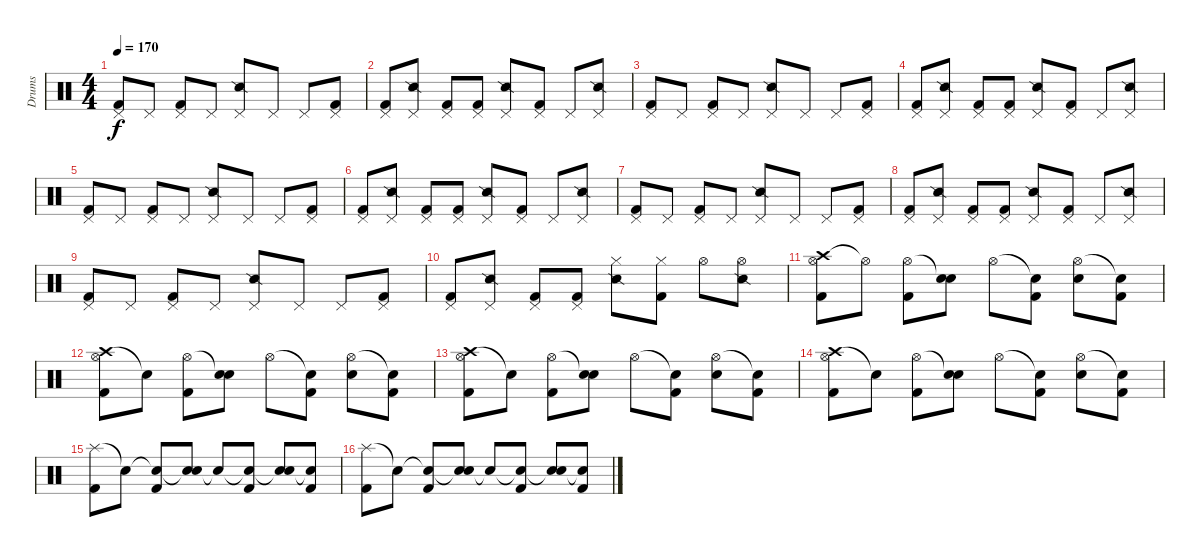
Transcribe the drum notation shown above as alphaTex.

\track ("Drums" "Drums") {instrument percussion}
\staff {score}
\articulation defaults
\ts (4 4)
\tempo 170
\clef neutral
\ks c
("Pedal Hi-Hat (hit)" "Kick (hit) 2").8{dy f} "Pedal Hi-Hat (hit)".8 ("Pedal Hi-Hat (hit)" "Kick (hit) 2").8 "Pedal Hi-Hat (hit)".8 ("Pedal Hi-Hat (hit)" "Snare (side stick) 2").8 "Pedal Hi-Hat (hit)".8 "Pedal Hi-Hat (hit)".8 ("Pedal Hi-Hat (hit)" "Kick (hit) 2").8 |
("Pedal Hi-Hat (hit)" "Kick (hit) 2").8 ("Pedal Hi-Hat (hit)" "Snare (side stick) 2").8 ("Pedal Hi-Hat (hit)" "Kick (hit) 2").8 ("Pedal Hi-Hat (hit)" "Kick (hit) 2").8 ("Pedal Hi-Hat (hit)" "Snare (side stick) 2").8 ("Pedal Hi-Hat (hit)" "Kick (hit) 2").8 "Pedal Hi-Hat (hit)".8 ("Pedal Hi-Hat (hit)" "Snare (side stick) 2").8 |
("Pedal Hi-Hat (hit)" "Kick (hit) 2").8 "Pedal Hi-Hat (hit)".8 ("Pedal Hi-Hat (hit)" "Kick (hit) 2").8 "Pedal Hi-Hat (hit)".8 ("Pedal Hi-Hat (hit)" "Snare (side stick) 2").8 "Pedal Hi-Hat (hit)".8 "Pedal Hi-Hat (hit)".8 ("Pedal Hi-Hat (hit)" "Kick (hit) 2").8 |
("Pedal Hi-Hat (hit)" "Kick (hit) 2").8 ("Pedal Hi-Hat (hit)" "Snare (side stick) 2").8 ("Pedal Hi-Hat (hit)" "Kick (hit) 2").8 ("Pedal Hi-Hat (hit)" "Kick (hit) 2").8 ("Pedal Hi-Hat (hit)" "Snare (side stick) 2").8 ("Pedal Hi-Hat (hit)" "Kick (hit) 2").8 "Pedal Hi-Hat (hit)".8 ("Pedal Hi-Hat (hit)" "Snare (side stick) 2").8 |
("Pedal Hi-Hat (hit)" "Kick (hit) 2").8 "Pedal Hi-Hat (hit)".8 ("Pedal Hi-Hat (hit)" "Kick (hit) 2").8 "Pedal Hi-Hat (hit)".8 ("Pedal Hi-Hat (hit)" "Snare (side stick) 2").8 "Pedal Hi-Hat (hit)".8 "Pedal Hi-Hat (hit)".8 ("Pedal Hi-Hat (hit)" "Kick (hit) 2").8 |
("Pedal Hi-Hat (hit)" "Kick (hit) 2").8 ("Pedal Hi-Hat (hit)" "Snare (side stick) 2").8 ("Pedal Hi-Hat (hit)" "Kick (hit) 2").8 ("Pedal Hi-Hat (hit)" "Kick (hit) 2").8 ("Pedal Hi-Hat (hit)" "Snare (side stick) 2").8 ("Pedal Hi-Hat (hit)" "Kick (hit) 2").8 "Pedal Hi-Hat (hit)".8 ("Pedal Hi-Hat (hit)" "Snare (side stick) 2").8 |
("Pedal Hi-Hat (hit)" "Kick (hit) 2").8 "Pedal Hi-Hat (hit)".8 ("Pedal Hi-Hat (hit)" "Kick (hit) 2").8 "Pedal Hi-Hat (hit)".8 ("Pedal Hi-Hat (hit)" "Snare (side stick) 2").8 "Pedal Hi-Hat (hit)".8 "Pedal Hi-Hat (hit)".8 ("Pedal Hi-Hat (hit)" "Kick (hit) 2").8 |
("Pedal Hi-Hat (hit)" "Kick (hit) 2").8 ("Pedal Hi-Hat (hit)" "Snare (side stick) 2").8 ("Pedal Hi-Hat (hit)" "Kick (hit) 2").8 ("Pedal Hi-Hat (hit)" "Kick (hit) 2").8 ("Pedal Hi-Hat (hit)" "Snare (side stick) 2").8 ("Pedal Hi-Hat (hit)" "Kick (hit) 2").8 "Pedal Hi-Hat (hit)".8 ("Pedal Hi-Hat (hit)" "Snare (side stick) 2").8 |
("Pedal Hi-Hat (hit)" "Kick (hit) 2").8 "Pedal Hi-Hat (hit)".8 ("Pedal Hi-Hat (hit)" "Kick (hit) 2").8 "Pedal Hi-Hat (hit)".8 ("Pedal Hi-Hat (hit)" "Snare (side stick) 2").8 "Pedal Hi-Hat (hit)".8 "Pedal Hi-Hat (hit)".8 ("Pedal Hi-Hat (hit)" "Kick (hit) 2").8 |
("Pedal Hi-Hat (hit)" "Kick (hit) 2").8 ("Pedal Hi-Hat (hit)" "Snare (side stick) 2").8 ("Pedal Hi-Hat (hit)" "Kick (hit) 2").8 ("Pedal Hi-Hat (hit)" "Kick (hit) 2").8 ("Hi-Hat (closed)" "Snare (side stick) 2").8 ("Hi-Hat (closed)" "Kick (hit) 2").8 "Hi-Hat (open)".8 ("Hi-Hat (open)" "Snare (side stick) 2").8 |
("Crash high (hit)" "Hi-Hat (open)" "Kick (hit) 2").8 "Hi-Hat (open)"{t}.8 ("Hi-Hat (open)" "Kick (hit) 2").8 ("Snare (hit)"{t} "Electric Snare (hit)").8 "Hi-Hat (open)".8 ("Snare (hit)"{t} "Kick (hit) 2").8 ("Hi-Hat (open)" "Electric Snare (hit)").8 ("Snare (hit)"{t} "Kick (hit) 2").8 |
("Crash high (hit)" "Hi-Hat (open)" "Kick (hit) 2").8 "Snare (hit)"{t}.8 ("Hi-Hat (open)" "Kick (hit) 2").8 ("Snare (hit)"{t} "Electric Snare (hit)").8 "Hi-Hat (open)".8 ("Snare (hit)"{t} "Kick (hit) 2").8 ("Hi-Hat (open)" "Electric Snare (hit)").8 ("Snare (hit)"{t} "Kick (hit) 2").8 |
("Crash high (hit)" "Hi-Hat (open)" "Kick (hit) 2").8 "Snare (hit)"{t}.8 ("Hi-Hat (open)" "Kick (hit) 2").8 ("Snare (hit)"{t} "Electric Snare (hit)").8 "Hi-Hat (open)".8 ("Snare (hit)"{t} "Kick (hit) 2").8 ("Hi-Hat (open)" "Electric Snare (hit)").8 ("Snare (hit)"{t} "Kick (hit) 2").8 |
("Crash high (hit)" "Hi-Hat (open)" "Kick (hit) 2").8 "Snare (hit)"{t}.8 ("Hi-Hat (open)" "Kick (hit) 2").8 ("Snare (hit)"{t} "Electric Snare (hit)").8 "Hi-Hat (open)".8 ("Snare (hit)"{t} "Kick (hit) 2").8 ("Hi-Hat (open)" "Electric Snare (hit)").8 ("Snare (hit)"{t} "Kick (hit) 2").8 |
("Splash (hit)" "Kick (hit) 2").8 "Snare (hit)"{t}.8 ("Snare (hit)"{t} "Kick (hit) 2").8 ("Snare (hit)"{t} "Electric Snare (hit)").8 "Snare (hit)"{t}.8 ("Snare (hit)"{t} "Kick (hit) 2").8 ("Snare (hit)"{t} "Electric Snare (hit)").8 ("Snare (hit)"{t} "Kick (hit) 2").8 |
("Splash (hit)" "Kick (hit) 2").8 "Snare (hit)"{t}.8 ("Snare (hit)"{t} "Kick (hit) 2").8 ("Snare (hit)"{t} "Electric Snare (hit)").8 "Snare (hit)"{t}.8 ("Snare (hit)"{t} "Kick (hit) 2").8 ("Snare (hit)"{t} "Electric Snare (hit)").8 ("Snare (hit)"{t} "Kick (hit) 2").8
